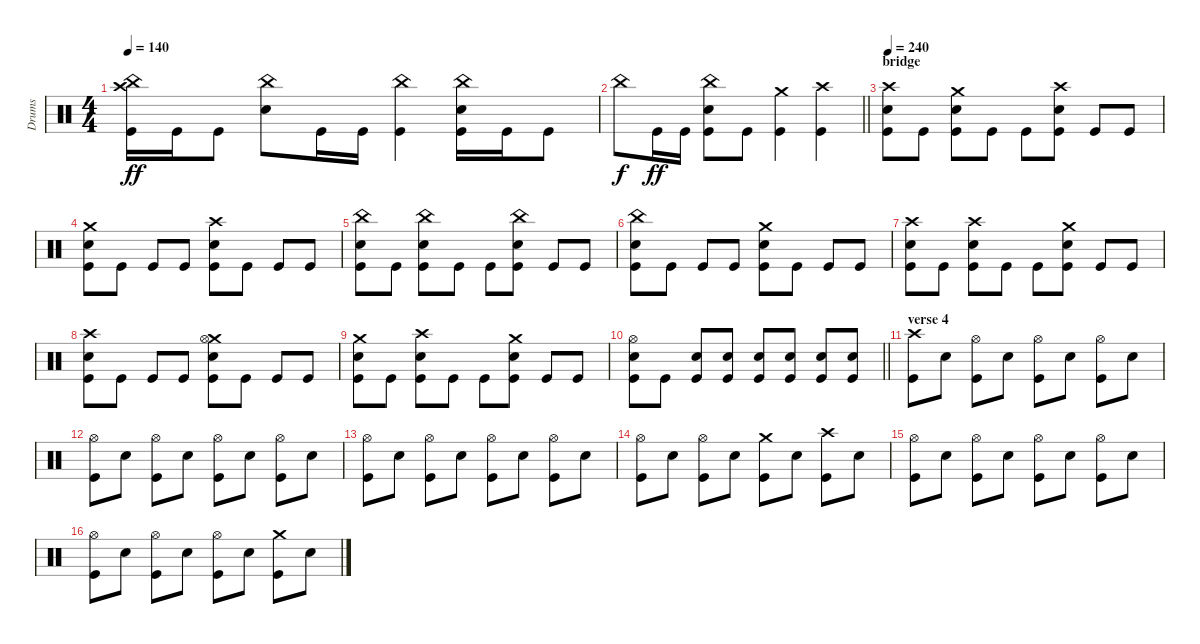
\track ("Drums" "Drums") {instrument percussion}
\staff {score}
\articulation defaults
\ts (4 4)
\tempo 140
\clef neutral
\ks c
("Crash high (hit)" "China (hit)" "Kick (hit)").16{dy ff} "Kick (hit)".16 "Kick (hit)".8 ("China (hit)" "Electric Snare (hit)").8 "Kick (hit)".16 "Kick (hit)".16 ("China (hit)" "Kick (hit)").4 ("China (hit)" "Electric Snare (hit)" "Kick (hit)").16 "Kick (hit)".16 "Kick (hit)".8 |
\barLineRight lightlight "China (hit)".8{dy f} "Kick (hit)".16{dy ff} "Kick (hit)".16
("China (hit)" "Electric Snare (hit)" "Kick (hit)").8 "Kick (hit)".8 ("Crash medium (hit)" "Kick (hit)").4 ("Crash high (hit)" "Kick (hit)").4 |
\section ("" "bridge")
\tempo 240
("Crash high (hit)" "Electric Snare (hit)" "Kick (hit)").8 "Kick (hit)".8 ("Crash medium (hit)" "Electric Snare (hit)" "Kick (hit)").8 "Kick (hit)".8 "Kick (hit)".8 ("Crash high (hit)" "Electric Snare (hit)" "Kick (hit)").8 "Kick (hit)".8 "Kick (hit)".8 |
("Crash medium (hit)" "Electric Snare (hit)" "Kick (hit)").8 "Kick (hit)".8 "Kick (hit)".8 "Kick (hit)".8 ("Crash high (hit)" "Electric Snare (hit)" "Kick (hit)").8 "Kick (hit)".8 "Kick (hit)".8 "Kick (hit)".8 |
("China (hit)" "Electric Snare (hit)" "Kick (hit)").8 "Kick (hit)".8 ("China (hit)" "Electric Snare (hit)" "Kick (hit)").8 "Kick (hit)".8 "Kick (hit)".8 ("China (hit)" "Electric Snare (hit)" "Kick (hit)").8 "Kick (hit)".8 "Kick (hit)".8 |
("China (hit)" "Electric Snare (hit)" "Kick (hit)").8 "Kick (hit)".8 "Kick (hit)".8 "Kick (hit)".8 ("Crash medium (hit)" "Electric Snare (hit)" "Kick (hit)").8 "Kick (hit)".8 "Kick (hit)".8 "Kick (hit)".8 |
("Crash high (hit)" "Electric Snare (hit)" "Kick (hit)").8 "Kick (hit)".8 ("Crash high (hit)" "Electric Snare (hit)" "Kick (hit)").8 "Kick (hit)".8 "Kick (hit)".8 ("Crash medium (hit)" "Electric Snare (hit)" "Kick (hit)").8 "Kick (hit)".8 "Kick (hit)".8 |
("Crash high (hit)" "Electric Snare (hit)" "Kick (hit)").8 "Kick (hit)".8 "Kick (hit)".8 "Kick (hit)".8 ("Crash medium (hit)" "Hi-Hat (open)" "Electric Snare (hit)" "Kick (hit)").8 "Kick (hit)".8 "Kick (hit)".8 "Kick (hit)".8 |
("Crash medium (hit)" "Electric Snare (hit)" "Kick (hit)").8 "Kick (hit)".8 ("Crash high (hit)" "Electric Snare (hit)" "Kick (hit)").8 "Kick (hit)".8 "Kick (hit)".8 ("Crash medium (hit)" "Electric Snare (hit)" "Kick (hit)").8 "Kick (hit)".8 "Kick (hit)".8 |
\barLineRight lightlight
("Hi-Hat (open)" "Electric Snare (hit)" "Kick (hit)").8 "Kick (hit)".8 ("Electric Snare (hit)" "Kick (hit)").8 ("Electric Snare (hit)" "Kick (hit)").8 ("Electric Snare (hit)" "Kick (hit)").8 ("Electric Snare (hit)" "Kick (hit)").8 ("Electric Snare (hit)" "Kick (hit)").8 ("Electric Snare (hit)" "Kick (hit)").8 |
\section ("" "verse 4 ")
("Crash high (hit)" "Kick (hit)").8 "Electric Snare (hit)".8 ("Hi-Hat (open)" "Kick (hit)").8 "Electric Snare (hit)".8 ("Hi-Hat (open)" "Kick (hit)").8 "Electric Snare (hit)".8 ("Hi-Hat (open)" "Kick (hit)").8 "Electric Snare (hit)".8 |
("Hi-Hat (open)" "Kick (hit)").8 "Electric Snare (hit)".8 ("Hi-Hat (open)" "Kick (hit)").8 "Electric Snare (hit)".8 ("Hi-Hat (open)" "Kick (hit)").8 "Electric Snare (hit)".8 ("Hi-Hat (open)" "Kick (hit)").8 "Electric Snare (hit)".8 |
("Hi-Hat (open)" "Kick (hit)").8 "Electric Snare (hit)".8 ("Hi-Hat (open)" "Kick (hit)").8 "Electric Snare (hit)".8 ("Hi-Hat (open)" "Kick (hit)").8 "Electric Snare (hit)".8 ("Hi-Hat (open)" "Kick (hit)").8 "Electric Snare (hit)".8 |
("Hi-Hat (open)" "Kick (hit)").8 "Electric Snare (hit)".8 ("Hi-Hat (open)" "Kick (hit)").8 "Electric Snare (hit)".8 ("Crash medium (hit)" "Kick (hit)").8 "Electric Snare (hit)".8 ("Crash high (hit)" "Kick (hit)").8 "Electric Snare (hit)".8 |
("Hi-Hat (open)" "Kick (hit)").8 "Electric Snare (hit)".8 ("Hi-Hat (open)" "Kick (hit)").8 "Electric Snare (hit)".8 ("Hi-Hat (open)" "Kick (hit)").8 "Electric Snare (hit)".8 ("Hi-Hat (open)" "Kick (hit)").8 "Electric Snare (hit)".8 |
("Hi-Hat (open)" "Kick (hit)").8 "Electric Snare (hit)".8 ("Hi-Hat (open)" "Kick (hit)").8 "Electric Snare (hit)".8 ("Hi-Hat (open)" "Kick (hit)").8 "Electric Snare (hit)".8 ("Crash medium (hit)" "Kick (hit)").8 "Electric Snare (hit)".8
